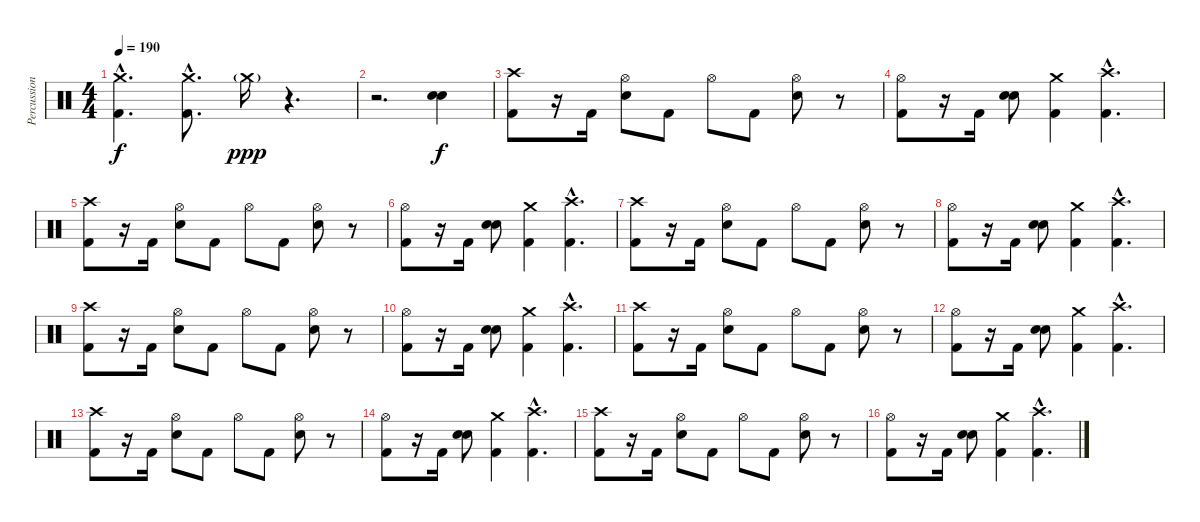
\track ("Percussion" "Percussion") {instrument percussion}
\staff {score}
\articulation defaults
\ts (4 4)
\tempo 190
\clef neutral
\ks c
("Crash medium (hit)"{hac} "Kick (hit) 2"{hac}).4{d dy f} ("Crash medium (hit)"{hac} "Kick (hit) 2"{hac}).8{d} "Crash medium (hit)"{g}.16{dy ppp} r.4{d} |
r.2{d} ("Snare (hit) 2" "Snare (hit) 2").4{dy f} |
("Crash high (hit)" "Kick (hit) 2").8 r.16 "Kick (hit) 2".16 ("Hi-Hat (open)" "Snare (hit) 2").8 "Kick (hit) 2".8 "Hi-Hat (open)".8 "Kick (hit) 2".8 ("Hi-Hat (open)" "Snare (hit) 2").8 r.8 |
("Hi-Hat (open)" "Kick (hit) 2").8 r.16 "Kick (hit) 2".16 ("Snare (hit) 2" "Snare (hit) 2").8 ("Crash medium (hit)" "Kick (hit) 2").4 ("Crash high (hit)"{hac} "Kick (hit) 2"{hac}).4{d} |
("Crash high (hit)" "Kick (hit) 2").8 r.16 "Kick (hit) 2".16 ("Hi-Hat (open)" "Snare (hit) 2").8 "Kick (hit) 2".8 "Hi-Hat (open)".8 "Kick (hit) 2".8 ("Hi-Hat (open)" "Snare (hit) 2").8 r.8 |
("Hi-Hat (open)" "Kick (hit) 2").8 r.16 "Kick (hit) 2".16 ("Snare (hit) 2" "Snare (hit) 2").8 ("Crash medium (hit)" "Kick (hit) 2").4 ("Crash high (hit)"{hac} "Kick (hit) 2"{hac}).4{d} |
("Crash high (hit)" "Kick (hit) 2").8 r.16 "Kick (hit) 2".16 ("Hi-Hat (open)" "Snare (hit) 2").8 "Kick (hit) 2".8 "Hi-Hat (open)".8 "Kick (hit) 2".8 ("Hi-Hat (open)" "Snare (hit) 2").8 r.8 |
("Hi-Hat (open)" "Kick (hit) 2").8 r.16 "Kick (hit) 2".16 ("Snare (hit) 2" "Snare (hit) 2").8 ("Crash medium (hit)" "Kick (hit) 2").4 ("Crash high (hit)"{hac} "Kick (hit) 2"{hac}).4{d} |
("Crash high (hit)" "Kick (hit) 2").8 r.16 "Kick (hit) 2".16 ("Hi-Hat (open)" "Snare (hit) 2").8 "Kick (hit) 2".8 "Hi-Hat (open)".8 "Kick (hit) 2".8 ("Hi-Hat (open)" "Snare (hit) 2").8 r.8 |
("Hi-Hat (open)" "Kick (hit) 2").8 r.16 "Kick (hit) 2".16 ("Snare (hit) 2" "Snare (hit) 2").8 ("Crash medium (hit)" "Kick (hit) 2").4 ("Crash high (hit)"{hac} "Kick (hit) 2"{hac}).4{d} |
("Crash high (hit)" "Kick (hit) 2").8 r.16 "Kick (hit) 2".16 ("Hi-Hat (open)" "Snare (hit) 2").8 "Kick (hit) 2".8 "Hi-Hat (open)".8 "Kick (hit) 2".8 ("Hi-Hat (open)" "Snare (hit) 2").8 r.8 |
("Hi-Hat (open)" "Kick (hit) 2").8 r.16 "Kick (hit) 2".16 ("Snare (hit) 2" "Snare (hit) 2").8 ("Crash medium (hit)" "Kick (hit) 2").4 ("Crash high (hit)"{hac} "Kick (hit) 2"{hac}).4{d} |
("Crash high (hit)" "Kick (hit) 2").8 r.16 "Kick (hit) 2".16 ("Hi-Hat (open)" "Snare (hit) 2").8 "Kick (hit) 2".8 "Hi-Hat (open)".8 "Kick (hit) 2".8 ("Hi-Hat (open)" "Snare (hit) 2").8 r.8 |
("Hi-Hat (open)" "Kick (hit) 2").8 r.16 "Kick (hit) 2".16 ("Snare (hit) 2" "Snare (hit) 2").8 ("Crash medium (hit)" "Kick (hit) 2").4 ("Crash high (hit)"{hac} "Kick (hit) 2"{hac}).4{d} |
("Crash high (hit)" "Kick (hit) 2").8 r.16 "Kick (hit) 2".16 ("Hi-Hat (open)" "Snare (hit) 2").8 "Kick (hit) 2".8 "Hi-Hat (open)".8 "Kick (hit) 2".8 ("Hi-Hat (open)" "Snare (hit) 2").8 r.8 |
("Hi-Hat (open)" "Kick (hit) 2").8 r.16 "Kick (hit) 2".16 ("Snare (hit) 2" "Snare (hit) 2").8 ("Crash medium (hit)" "Kick (hit) 2").4 ("Crash high (hit)"{hac} "Kick (hit) 2"{hac}).4{d}
